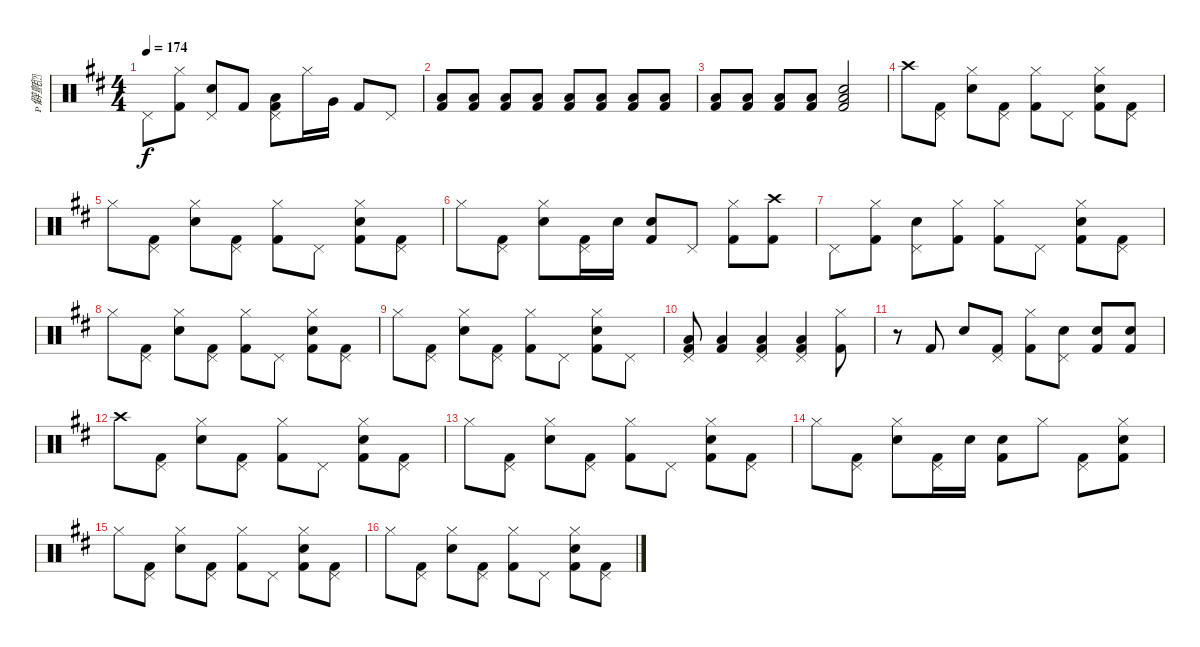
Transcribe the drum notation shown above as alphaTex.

\track ("僻氈" "僻氈") {instrument percussion}
\staff {score}
\articulation defaults
\ts (4 4)
\tempo 174
\clef neutral
\ks d "Pedal Hi-Hat (hit)".8{dy f}
("Hi-Hat (closed)" "Kick (hit) 2").8 ("Pedal Hi-Hat (hit)" "Electric Snare (hit)").8 "Kick (hit) 2".8 ("Pedal Hi-Hat (hit)" "Low Tom (hit)" "Kick (hit) 2").8 "Hi-Hat (closed)".16 "Very Low Tom (hit)".16 "Kick (hit) 2".8 "Pedal Hi-Hat (hit)".8 |
("Low Tom (hit)" "Kick (hit) 2").8 ("Low Tom (hit)" "Kick (hit) 2").8 ("Low Tom (hit)" "Kick (hit) 2").8 ("Low Tom (hit)" "Kick (hit) 2").8 ("Low Tom (hit)" "Kick (hit) 2").8 ("Low Tom (hit)" "Kick (hit) 2").8 ("Low Tom (hit)" "Kick (hit) 2").8 ("Low Tom (hit)" "Kick (hit) 2").8 |
("Low Tom (hit)" "Kick (hit) 2").8 ("Low Tom (hit)" "Kick (hit) 2").8 ("Low Tom (hit)" "Kick (hit) 2").8 ("Low Tom (hit)" "Kick (hit) 2").8 ("Electric Snare (hit)" "Low Tom (hit)" "Kick (hit) 2").2 |
"Crash high (hit)".8 ("Pedal Hi-Hat (hit)" "Kick (hit) 2").8 ("Hi-Hat (closed)" "Electric Snare (hit)").8 ("Pedal Hi-Hat (hit)" "Kick (hit) 2").8 ("Hi-Hat (closed)" "Kick (hit) 2").8 "Pedal Hi-Hat (hit)".8 ("Hi-Hat (closed)" "Electric Snare (hit)" "Kick (hit) 2").8 ("Pedal Hi-Hat (hit)" "Kick (hit) 2").8 |
"Hi-Hat (closed)".8 ("Pedal Hi-Hat (hit)" "Kick (hit) 2").8 ("Hi-Hat (closed)" "Electric Snare (hit)").8 ("Pedal Hi-Hat (hit)" "Kick (hit) 2").8 ("Hi-Hat (closed)" "Kick (hit) 2").8 "Pedal Hi-Hat (hit)".8 ("Hi-Hat (closed)" "Electric Snare (hit)" "Kick (hit) 2").8 ("Pedal Hi-Hat (hit)" "Kick (hit) 2").8 |
"Hi-Hat (closed)".8 ("Pedal Hi-Hat (hit)" "Kick (hit) 2").8 ("Hi-Hat (closed)" "Electric Snare (hit)").8 ("Pedal Hi-Hat (hit)" "Kick (hit) 2").16 "Electric Snare (hit)".16 ("Electric Snare (hit)" "Kick (hit) 2").8 "Pedal Hi-Hat (hit)".8 ("Hi-Hat (closed)" "Kick (hit) 2").8 ("Crash high (hit)" "Kick (hit) 2").8 |
"Pedal Hi-Hat (hit)".8 ("Hi-Hat (closed)" "Kick (hit) 2").8 ("Pedal Hi-Hat (hit)" "Electric Snare (hit)").8 ("Hi-Hat (closed)" "Kick (hit) 2").8 ("Hi-Hat (closed)" "Kick (hit) 2").8 "Pedal Hi-Hat (hit)".8 ("Hi-Hat (closed)" "Electric Snare (hit)" "Kick (hit) 2").8 ("Pedal Hi-Hat (hit)" "Kick (hit) 2").8 |
"Hi-Hat (closed)".8 ("Pedal Hi-Hat (hit)" "Kick (hit) 2").8 ("Hi-Hat (closed)" "Electric Snare (hit)").8 ("Pedal Hi-Hat (hit)" "Kick (hit) 2").8 ("Hi-Hat (closed)" "Kick (hit) 2").8 "Pedal Hi-Hat (hit)".8 ("Hi-Hat (closed)" "Electric Snare (hit)" "Kick (hit) 2").8 ("Pedal Hi-Hat (hit)" "Kick (hit) 2").8 |
"Hi-Hat (closed)".8 ("Pedal Hi-Hat (hit)" "Kick (hit) 2").8 ("Hi-Hat (closed)" "Electric Snare (hit)").8 ("Pedal Hi-Hat (hit)" "Kick (hit) 2").8 ("Hi-Hat (closed)" "Kick (hit) 2").8 "Pedal Hi-Hat (hit)".8 ("Hi-Hat (closed)" "Electric Snare (hit)" "Kick (hit) 2").8 "Pedal Hi-Hat (hit)".8 |
("Pedal Hi-Hat (hit)" "Low Tom (hit)" "Kick (hit) 2").8 ("Low Tom (hit)" "Kick (hit) 2").4 ("Pedal Hi-Hat (hit)" "Low Tom (hit)" "Kick (hit) 2").4 ("Pedal Hi-Hat (hit)" "Low Tom (hit)" "Kick (hit) 2").4 ("Hi-Hat (closed)" "Kick (hit) 2").8 |
r.8 "Kick (hit) 2".8 "Electric Snare (hit)".8 ("Pedal Hi-Hat (hit)" "Kick (hit) 2").8 ("Hi-Hat (closed)" "Kick (hit) 2").8 ("Pedal Hi-Hat (hit)" "Electric Snare (hit)").8 ("Electric Snare (hit)" "Kick (hit) 2").8 ("Electric Snare (hit)" "Kick (hit) 2").8 |
"Crash high (hit)".8 ("Pedal Hi-Hat (hit)" "Kick (hit) 2").8 ("Hi-Hat (closed)" "Electric Snare (hit)").8 ("Pedal Hi-Hat (hit)" "Kick (hit) 2").8 ("Hi-Hat (closed)" "Kick (hit) 2").8 "Pedal Hi-Hat (hit)".8 ("Hi-Hat (closed)" "Electric Snare (hit)" "Kick (hit) 2").8 ("Pedal Hi-Hat (hit)" "Kick (hit) 2").8 |
"Hi-Hat (closed)".8 ("Pedal Hi-Hat (hit)" "Kick (hit) 2").8 ("Hi-Hat (closed)" "Electric Snare (hit)").8 ("Pedal Hi-Hat (hit)" "Kick (hit) 2").8 ("Hi-Hat (closed)" "Kick (hit) 2").8 "Pedal Hi-Hat (hit)".8 ("Hi-Hat (closed)" "Electric Snare (hit)" "Kick (hit) 2").8 ("Pedal Hi-Hat (hit)" "Kick (hit) 2").8 |
"Hi-Hat (closed)".8 ("Pedal Hi-Hat (hit)" "Kick (hit) 2").8 ("Hi-Hat (closed)" "Electric Snare (hit)").8 ("Pedal Hi-Hat (hit)" "Kick (hit) 2").16 "Electric Snare (hit)".16 ("Electric Snare (hit)" "Kick (hit) 2").8 "Hi-Hat (closed)".8 ("Pedal Hi-Hat (hit)" "Kick (hit) 2").8 ("Hi-Hat (closed)" "Electric Snare (hit)" "Kick (hit) 2").8 |
"Hi-Hat (closed)".8 ("Pedal Hi-Hat (hit)" "Kick (hit) 2").8 ("Hi-Hat (closed)" "Electric Snare (hit)").8 ("Pedal Hi-Hat (hit)" "Kick (hit) 2").8 ("Hi-Hat (closed)" "Kick (hit) 2").8 "Pedal Hi-Hat (hit)".8 ("Hi-Hat (closed)" "Electric Snare (hit)" "Kick (hit) 2").8 ("Pedal Hi-Hat (hit)" "Kick (hit) 2").8 |
"Hi-Hat (closed)".8 ("Pedal Hi-Hat (hit)" "Kick (hit) 2").8 ("Hi-Hat (closed)" "Electric Snare (hit)").8 ("Pedal Hi-Hat (hit)" "Kick (hit) 2").8 ("Hi-Hat (closed)" "Kick (hit) 2").8 "Pedal Hi-Hat (hit)".8 ("Hi-Hat (closed)" "Electric Snare (hit)" "Kick (hit) 2").8 ("Pedal Hi-Hat (hit)" "Kick (hit) 2").8
